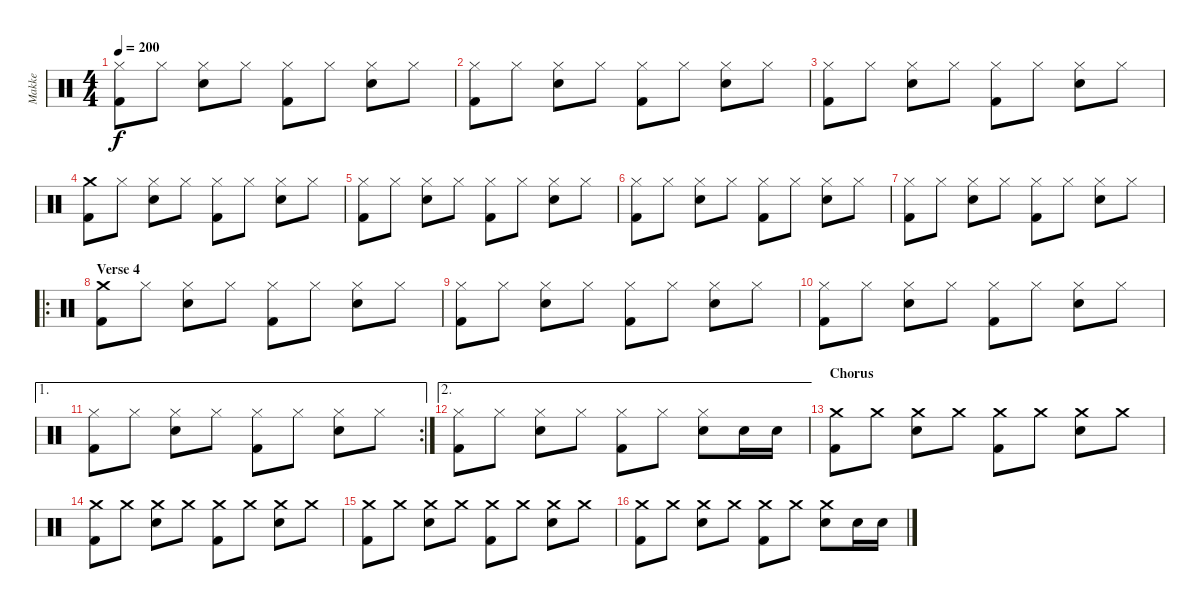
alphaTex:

\track ("Makke" "Makke") {instrument percussion}
\staff {score}
\articulation defaults
\ts (4 4)
\tempo 200
\clef neutral
\ks c
("Hi-Hat (closed)" "Kick (hit) 2").8{dy f} "Hi-Hat (closed)".8 ("Hi-Hat (closed)" "Electric Snare (hit)").8 "Hi-Hat (closed)".8 ("Hi-Hat (closed)" "Kick (hit) 2").8 "Hi-Hat (closed)".8 ("Hi-Hat (closed)" "Electric Snare (hit)").8 "Hi-Hat (closed)".8 |
("Hi-Hat (closed)" "Kick (hit) 2").8 "Hi-Hat (closed)".8 ("Hi-Hat (closed)" "Electric Snare (hit)").8 "Hi-Hat (closed)".8 ("Hi-Hat (closed)" "Kick (hit) 2").8 "Hi-Hat (closed)".8 ("Hi-Hat (closed)" "Electric Snare (hit)").8 "Hi-Hat (closed)".8 |
("Hi-Hat (closed)" "Kick (hit) 2").8 "Hi-Hat (closed)".8 ("Hi-Hat (closed)" "Electric Snare (hit)").8 "Hi-Hat (closed)".8 ("Hi-Hat (closed)" "Kick (hit) 2").8 "Hi-Hat (closed)".8 ("Hi-Hat (closed)" "Electric Snare (hit)").8 "Hi-Hat (closed)".8 |
("Crash medium (hit)" "Kick (hit) 2").8 "Hi-Hat (closed)".8 ("Hi-Hat (closed)" "Electric Snare (hit)").8 "Hi-Hat (closed)".8 ("Hi-Hat (closed)" "Kick (hit) 2").8 "Hi-Hat (closed)".8 ("Hi-Hat (closed)" "Electric Snare (hit)").8 "Hi-Hat (closed)".8 |
("Hi-Hat (closed)" "Kick (hit) 2").8 "Hi-Hat (closed)".8 ("Hi-Hat (closed)" "Electric Snare (hit)").8 "Hi-Hat (closed)".8 ("Hi-Hat (closed)" "Kick (hit) 2").8 "Hi-Hat (closed)".8 ("Hi-Hat (closed)" "Electric Snare (hit)").8 "Hi-Hat (closed)".8 |
("Hi-Hat (closed)" "Kick (hit) 2").8 "Hi-Hat (closed)".8 ("Hi-Hat (closed)" "Electric Snare (hit)").8 "Hi-Hat (closed)".8 ("Hi-Hat (closed)" "Kick (hit) 2").8 "Hi-Hat (closed)".8 ("Hi-Hat (closed)" "Electric Snare (hit)").8 "Hi-Hat (closed)".8 |
("Hi-Hat (closed)" "Kick (hit) 2").8 "Hi-Hat (closed)".8 ("Hi-Hat (closed)" "Electric Snare (hit)").8 "Hi-Hat (closed)".8 ("Hi-Hat (closed)" "Kick (hit) 2").8 "Hi-Hat (closed)".8 ("Hi-Hat (closed)" "Electric Snare (hit)").8 "Hi-Hat (closed)".8 |
\ro
\section ("" "Verse 4")
("Crash medium (hit)" "Kick (hit) 2").8 "Hi-Hat (closed)".8 ("Hi-Hat (closed)" "Electric Snare (hit)").8 "Hi-Hat (closed)".8 ("Hi-Hat (closed)" "Kick (hit) 2").8 "Hi-Hat (closed)".8 ("Hi-Hat (closed)" "Electric Snare (hit)").8 "Hi-Hat (closed)".8 |
("Hi-Hat (closed)" "Kick (hit) 2").8 "Hi-Hat (closed)".8 ("Hi-Hat (closed)" "Electric Snare (hit)").8 "Hi-Hat (closed)".8 ("Hi-Hat (closed)" "Kick (hit) 2").8 "Hi-Hat (closed)".8 ("Hi-Hat (closed)" "Electric Snare (hit)").8 "Hi-Hat (closed)".8 |
("Hi-Hat (closed)" "Kick (hit) 2").8 "Hi-Hat (closed)".8 ("Hi-Hat (closed)" "Electric Snare (hit)").8 "Hi-Hat (closed)".8 ("Hi-Hat (closed)" "Kick (hit) 2").8 "Hi-Hat (closed)".8 ("Hi-Hat (closed)" "Electric Snare (hit)").8 "Hi-Hat (closed)".8 |
\ae 1
\rc 2
("Hi-Hat (closed)" "Kick (hit) 2").8 "Hi-Hat (closed)".8 ("Hi-Hat (closed)" "Electric Snare (hit)").8 "Hi-Hat (closed)".8 ("Hi-Hat (closed)" "Kick (hit) 2").8 "Hi-Hat (closed)".8 ("Hi-Hat (closed)" "Electric Snare (hit)").8 "Hi-Hat (closed)".8 |
\ae 2
("Hi-Hat (closed)" "Kick (hit) 2").8 "Hi-Hat (closed)".8 ("Hi-Hat (closed)" "Electric Snare (hit)").8 "Hi-Hat (closed)".8 ("Hi-Hat (closed)" "Kick (hit) 2").8 "Hi-Hat (closed)".8 ("Hi-Hat (closed)" "Electric Snare (hit)").8 "Electric Snare (hit)".16 "Electric Snare (hit)".16 |
\section ("" "Chorus")
("Crash medium (hit)" "Kick (hit) 2").8 "Crash medium (hit)".8 ("Crash medium (hit)" "Electric Snare (hit)").8 "Crash medium (hit)".8 ("Crash medium (hit)" "Kick (hit) 2").8 "Crash medium (hit)".8 ("Crash medium (hit)" "Electric Snare (hit)").8 "Crash medium (hit)".8 |
("Crash medium (hit)" "Kick (hit) 2").8 "Crash medium (hit)".8 ("Crash medium (hit)" "Electric Snare (hit)").8 "Crash medium (hit)".8 ("Crash medium (hit)" "Kick (hit) 2").8 "Crash medium (hit)".8 ("Crash medium (hit)" "Electric Snare (hit)").8 "Crash medium (hit)".8 |
("Crash medium (hit)" "Kick (hit) 2").8 "Crash medium (hit)".8 ("Crash medium (hit)" "Electric Snare (hit)").8 "Crash medium (hit)".8 ("Crash medium (hit)" "Kick (hit) 2").8 "Crash medium (hit)".8 ("Crash medium (hit)" "Electric Snare (hit)").8 "Crash medium (hit)".8 |
("Crash medium (hit)" "Kick (hit) 2").8 "Crash medium (hit)".8 ("Crash medium (hit)" "Electric Snare (hit)").8 "Crash medium (hit)".8 ("Crash medium (hit)" "Kick (hit) 2").8 "Crash medium (hit)".8 ("Crash medium (hit)" "Electric Snare (hit)").8 "Electric Snare (hit)".16 "Electric Snare (hit)".16
